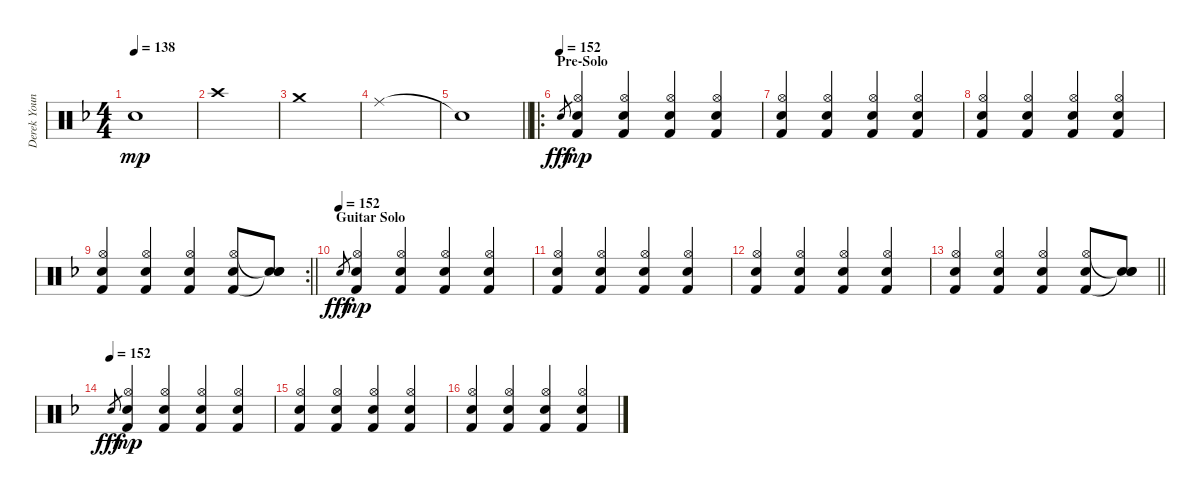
\track ("Derek Youngsma" "Derek Youn") {instrument percussion}
\staff {score}
\articulation defaults
\ts (4 4)
\tempo 138
\clef neutral
\ks f "Snare (hit)"{t}.1{dy mp}
|
"Crash high (hit)".1 |
"Crash medium (hit)".1 |
"Ride (middle)".1 |
\barLineRight lightlight "Snare (hit)"{t}.1
|
\ro
\section ("" "Pre-Solo")
\tempo (152)
"Electric Snare (hit)".8{gr dy fff} ("Hi-Hat (open)" "Electric Snare (hit)" "Kick (hit) 2").4{dy mp} ("Hi-Hat (open)" "Electric Snare (hit)" "Kick (hit) 2").4 ("Hi-Hat (open)" "Electric Snare (hit)" "Kick (hit) 2").4 ("Hi-Hat (open)" "Electric Snare (hit)" "Kick (hit) 2").4 |
("Hi-Hat (open)" "Electric Snare (hit)" "Kick (hit) 2").4 ("Hi-Hat (open)" "Electric Snare (hit)" "Kick (hit) 2").4 ("Hi-Hat (open)" "Electric Snare (hit)" "Kick (hit) 2").4 ("Hi-Hat (open)" "Electric Snare (hit)" "Kick (hit) 2").4 |
("Hi-Hat (open)" "Electric Snare (hit)" "Kick (hit) 2").4 ("Hi-Hat (open)" "Electric Snare (hit)" "Kick (hit) 2").4 ("Hi-Hat (open)" "Electric Snare (hit)" "Kick (hit) 2").4 ("Hi-Hat (open)" "Electric Snare (hit)" "Kick (hit) 2").4 |
\rc 2
\barLineRight lightlight
("Hi-Hat (open)" "Electric Snare (hit)" "Kick (hit) 2").4 ("Hi-Hat (open)" "Electric Snare (hit)" "Kick (hit) 2").4 ("Hi-Hat (open)" "Electric Snare (hit)" "Kick (hit) 2").4 ("Hi-Hat (open)" "Electric Snare (hit)" "Kick (hit) 2").8 ("Snare (hit)"{t} "Electric Snare (hit)" "Snare (hit)"{t}).8 |
\section ("" "Guitar Solo")
\tempo (152)
"Electric Snare (hit)".8{gr dy fff} ("Hi-Hat (open)" "Electric Snare (hit)" "Kick (hit) 2").4{dy mp} ("Hi-Hat (open)" "Electric Snare (hit)" "Kick (hit) 2").4 ("Hi-Hat (open)" "Electric Snare (hit)" "Kick (hit) 2").4 ("Hi-Hat (open)" "Electric Snare (hit)" "Kick (hit) 2").4 |
("Hi-Hat (open)" "Electric Snare (hit)" "Kick (hit) 2").4 ("Hi-Hat (open)" "Electric Snare (hit)" "Kick (hit) 2").4 ("Hi-Hat (open)" "Electric Snare (hit)" "Kick (hit) 2").4 ("Hi-Hat (open)" "Electric Snare (hit)" "Kick (hit) 2").4 |
("Hi-Hat (open)" "Electric Snare (hit)" "Kick (hit) 2").4 ("Hi-Hat (open)" "Electric Snare (hit)" "Kick (hit) 2").4 ("Hi-Hat (open)" "Electric Snare (hit)" "Kick (hit) 2").4 ("Hi-Hat (open)" "Electric Snare (hit)" "Kick (hit) 2").4 |
\barLineRight lightlight
("Hi-Hat (open)" "Electric Snare (hit)" "Kick (hit) 2").4 ("Hi-Hat (open)" "Electric Snare (hit)" "Kick (hit) 2").4 ("Hi-Hat (open)" "Electric Snare (hit)" "Kick (hit) 2").4 ("Hi-Hat (open)" "Electric Snare (hit)" "Kick (hit) 2").8 ("Snare (hit)"{t} "Electric Snare (hit)" "Snare (hit)"{t}).8 |
\tempo (152)
"Electric Snare (hit)".8{gr dy fff} ("Hi-Hat (open)" "Electric Snare (hit)" "Kick (hit) 2").4{dy mp} ("Hi-Hat (open)" "Electric Snare (hit)" "Kick (hit) 2").4 ("Hi-Hat (open)" "Electric Snare (hit)" "Kick (hit) 2").4 ("Hi-Hat (open)" "Electric Snare (hit)" "Kick (hit) 2").4 |
("Hi-Hat (open)" "Electric Snare (hit)" "Kick (hit) 2").4 ("Hi-Hat (open)" "Electric Snare (hit)" "Kick (hit) 2").4 ("Hi-Hat (open)" "Electric Snare (hit)" "Kick (hit) 2").4 ("Hi-Hat (open)" "Electric Snare (hit)" "Kick (hit) 2").4 |
("Hi-Hat (open)" "Electric Snare (hit)" "Kick (hit) 2").4 ("Hi-Hat (open)" "Electric Snare (hit)" "Kick (hit) 2").4 ("Hi-Hat (open)" "Electric Snare (hit)" "Kick (hit) 2").4 ("Hi-Hat (open)" "Electric Snare (hit)" "Kick (hit) 2").4
